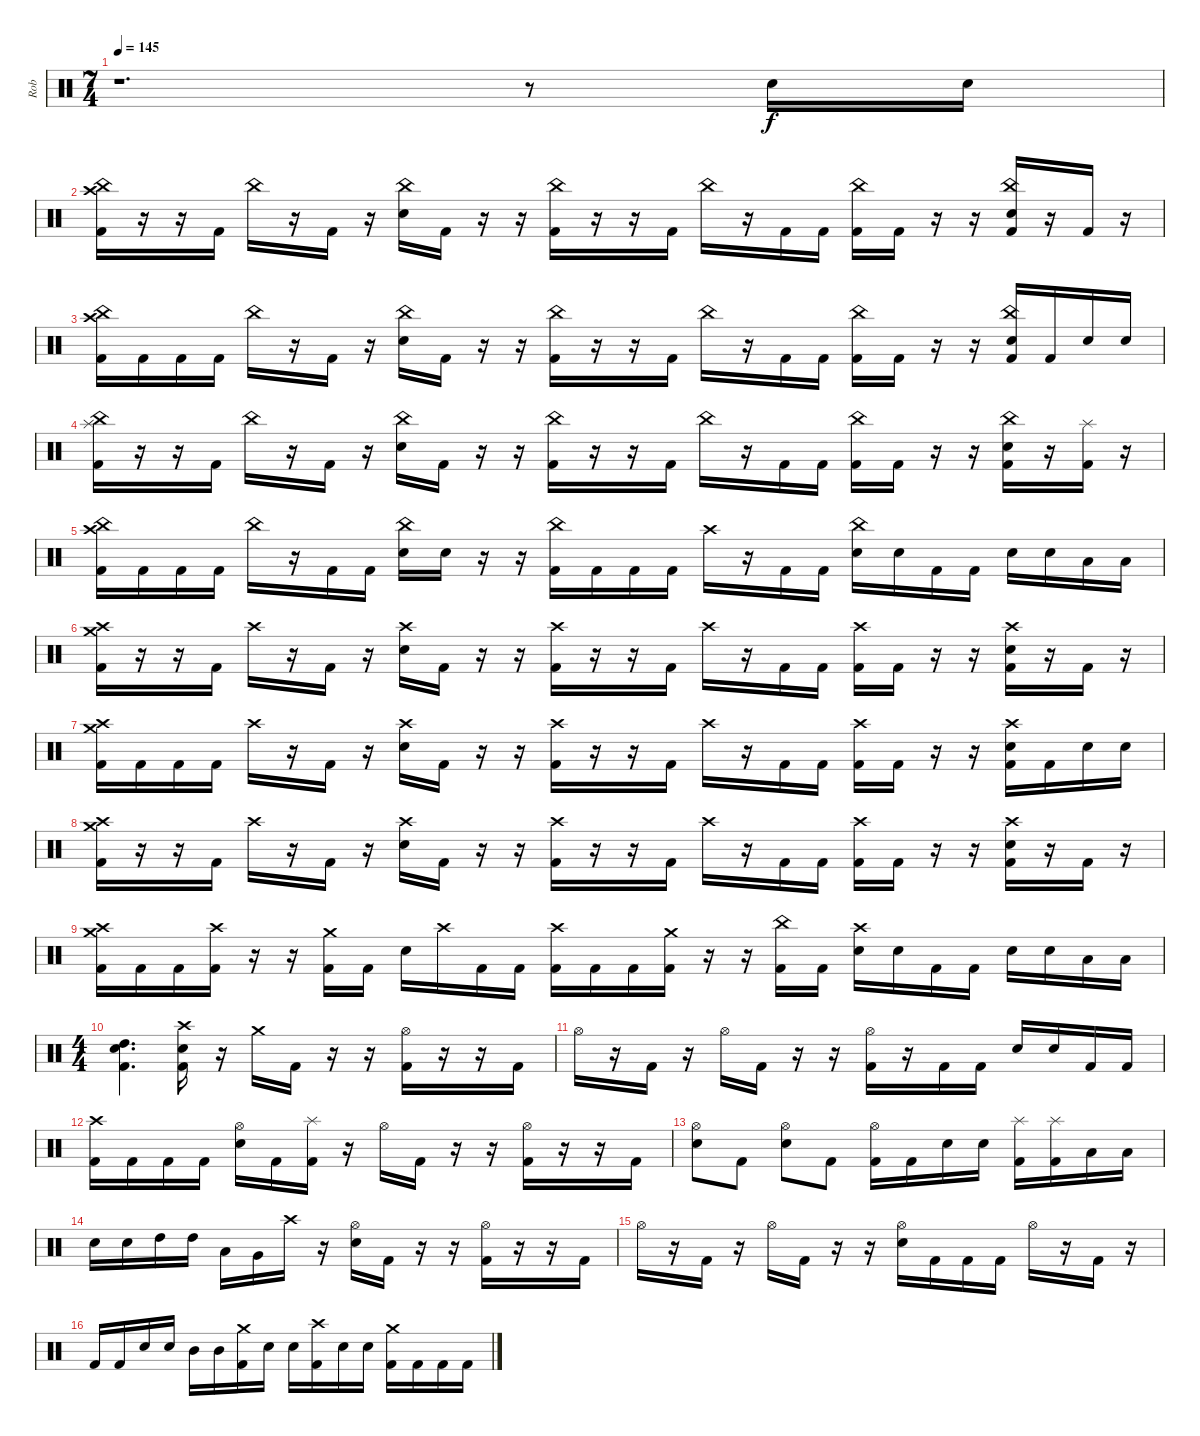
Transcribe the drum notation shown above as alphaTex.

\track ("Rob" "Rob") {instrument percussion}
\staff {score}
\articulation defaults
\ts (7 4)
\tempo 145
\clef neutral
\ks c
r.1{d dy f} r.8 "Electric Snare (hit)".16 "Electric Snare (hit)".16 |
("China (hit)" "Kick (hit) 2" "Crash high (hit)").16 r.16 r.16 "Kick (hit) 2".16 "China (hit)".16 r.16 "Kick (hit) 2".16 r.16 ("Electric Snare (hit)" "China (hit)").16 "Kick (hit) 2".16 r.16 r.16 ("Kick (hit) 2" "China (hit)").16 r.16 r.16 "Kick (hit) 2".16 "China (hit)".16 r.16 "Kick (hit) 2".16 "Kick (hit) 2".16 ("China (hit)" "Kick (hit) 2").16 "Kick (hit) 2".16 r.16 r.16 ("Kick (hit) 2" "China (hit)" "Electric Snare (hit)").16 r.16 "Kick (hit) 2".16 r.16 |
("Crash high (hit)" "Kick (hit) 2" "China (hit)").16 "Kick (hit) 2".16 "Kick (hit) 2".16 "Kick (hit) 2".16 "China (hit)".16 r.16 "Kick (hit) 2".16 r.16 ("Electric Snare (hit)" "China (hit)").16 "Kick (hit) 2".16 r.16 r.16 ("Kick (hit) 2" "China (hit)").16 r.16 r.16 "Kick (hit) 2".16 "China (hit)".16 r.16 "Kick (hit) 2".16 "Kick (hit) 2".16 ("China (hit)" "Kick (hit) 2").16 "Kick (hit) 2".16 r.16 r.16 ("Kick (hit) 2" "China (hit)" "Electric Snare (hit)").16 "Kick (hit) 2".16 "Electric Snare (hit)".16 "Electric Snare (hit)".16 |
("Splash (hit)" "China (hit)" "Kick (hit) 2").16 r.16 r.16 "Kick (hit) 2".16 "China (hit)".16 r.16 "Kick (hit) 2".16 r.16 ("Electric Snare (hit)" "China (hit)").16 "Kick (hit) 2".16 r.16 r.16 ("Kick (hit) 2" "China (hit)").16 r.16 r.16 "Kick (hit) 2".16 "China (hit)".16 r.16 "Kick (hit) 2".16 "Kick (hit) 2".16 ("China (hit)" "Kick (hit) 2").16 "Kick (hit) 2".16 r.16 r.16 ("Kick (hit) 2" "China (hit)" "Electric Snare (hit)").16 r.16 ("Kick (hit) 2" "Splash (hit)").16 r.16 |
("Crash high (hit)" "Kick (hit) 2" "China (hit)").16 "Kick (hit) 2".16 "Kick (hit) 2".16 "Kick (hit) 2".16 "China (hit)".16 r.16 "Kick (hit) 2".16 "Kick (hit) 2".16 ("Electric Snare (hit)" "China (hit)").16 "Electric Snare (hit)".16 r.16 r.16 ("Kick (hit) 2" "China (hit)").16 "Kick (hit) 2".16 "Kick (hit) 2".16 "Kick (hit) 2".16 "Crash high (hit)".16 r.16 "Kick (hit) 2".16 "Kick (hit) 2".16 ("China (hit)" "Electric Snare (hit)").16 "Electric Snare (hit)".16 "Kick (hit) 2".16 "Kick (hit) 2".16 "Electric Snare (hit)".16 "Electric Snare (hit)".16 "Low Tom (hit)".16 "Low Tom (hit)".16 |
("Crash high (hit)" "Kick (hit) 2" "Crash medium (hit)").16 r.16 r.16 "Kick (hit) 2".16 "Crash high (hit)".16 r.16 "Kick (hit) 2".16 r.16 ("Electric Snare (hit)" "Crash high (hit)").16 "Kick (hit) 2".16 r.16 r.16 ("Kick (hit) 2" "Crash high (hit)").16 r.16 r.16 "Kick (hit) 2".16 "Crash high (hit)".16 r.16 "Kick (hit) 2".16 "Kick (hit) 2".16 ("Crash high (hit)" "Kick (hit) 2").16 "Kick (hit) 2".16 r.16 r.16 ("Kick (hit) 2" "Crash high (hit)" "Electric Snare (hit)").16 r.16 "Kick (hit) 2".16 r.16 |
("Crash high (hit)" "Kick (hit) 2" "Crash medium (hit)").16 "Kick (hit) 2".16 "Kick (hit) 2".16 "Kick (hit) 2".16 "Crash high (hit)".16 r.16 "Kick (hit) 2".16 r.16 ("Electric Snare (hit)" "Crash high (hit)").16 "Kick (hit) 2".16 r.16 r.16 ("Kick (hit) 2" "Crash high (hit)").16 r.16 r.16 "Kick (hit) 2".16 "Crash high (hit)".16 r.16 "Kick (hit) 2".16 "Kick (hit) 2".16 ("Crash high (hit)" "Kick (hit) 2").16 "Kick (hit) 2".16 r.16 r.16 ("Kick (hit) 2" "Crash high (hit)" "Electric Snare (hit)").16 "Kick (hit) 2".16 "Electric Snare (hit)".16 "Electric Snare (hit)".16 |
("Crash high (hit)" "Kick (hit) 2" "Crash medium (hit)").16 r.16 r.16 "Kick (hit) 2".16 "Crash high (hit)".16 r.16 "Kick (hit) 2".16 r.16 ("Electric Snare (hit)" "Crash high (hit)").16 "Kick (hit) 2".16 r.16 r.16 ("Kick (hit) 2" "Crash high (hit)").16 r.16 r.16 "Kick (hit) 2".16 "Crash high (hit)".16 r.16 "Kick (hit) 2".16 "Kick (hit) 2".16 ("Crash high (hit)" "Kick (hit) 2").16 "Kick (hit) 2".16 r.16 r.16 ("Kick (hit) 2" "Crash high (hit)" "Electric Snare (hit)").16 r.16 "Kick (hit) 2".16 r.16 |
("Crash high (hit)" "Kick (hit) 2" "Crash medium (hit)").16 "Kick (hit) 2".16 "Kick (hit) 2".16 ("Kick (hit) 2" "Crash high (hit)").16 r.16 r.16 ("Kick (hit) 2" "Crash medium (hit)").16 "Kick (hit) 2".16 "Electric Snare (hit)".16 "Crash high (hit)".16 "Kick (hit) 2".16 "Kick (hit) 2".16 ("Kick (hit) 2" "Crash high (hit)").16 "Kick (hit) 2".16 "Kick (hit) 2".16 ("Crash medium (hit)" "Kick (hit) 2").16 r.16 r.16 ("Kick (hit) 2" "China (hit)").16 "Kick (hit) 2".16 ("Crash high (hit)" "Electric Snare (hit)").16 "Electric Snare (hit)".16 "Kick (hit) 2".16 "Kick (hit) 2".16 "Electric Snare (hit)".16 "Electric Snare (hit)".16 "Low Tom (hit)".16 "Low Tom (hit)".16 |
\ts (4 4)
("Electric Snare (hit)" "Kick (hit) 2" "High Tom (hit)").4{d} ("Crash high (hit)" "Kick (hit) 2" "Electric Snare (hit)").16 r.16 "Crash medium (hit)".16 "Kick (hit) 2".16 r.16 r.16 ("Kick (hit) 2" "Hi-Hat (open)").16 r.16 r.16 "Kick (hit) 2".16 |
"Hi-Hat (open)".16 r.16 "Kick (hit) 2".16 r.16 "Hi-Hat (open)".16 "Kick (hit) 2".16 r.16 r.16 ("Hi-Hat (open)" "Kick (hit) 2").16 r.16 "Kick (hit) 2".16 "Kick (hit) 2".16 "Electric Snare (hit)".16 "Electric Snare (hit)".16 "Kick (hit) 2".16 "Kick (hit) 2".16 |
("Kick (hit) 2" "Crash high (hit)").16 "Kick (hit) 2".16 "Kick (hit) 2".16 "Kick (hit) 2".16 ("Electric Snare (hit)" "Hi-Hat (open)").16 "Kick (hit) 2".16 ("Kick (hit) 2" "Splash (hit)").16 r.16 "Hi-Hat (open)".16 "Kick (hit) 2".16 r.16 r.16 ("Kick (hit) 2" "Hi-Hat (open)").16 r.16 r.16 "Kick (hit) 2".16 |
("Electric Snare (hit)" "Hi-Hat (open)").8 "Kick (hit) 2".8 ("Electric Snare (hit)" "Hi-Hat (open)").8 "Kick (hit) 2".8 ("Kick (hit) 2" "Hi-Hat (open)").16 "Kick (hit) 2".16 "Electric Snare (hit)".16 "Electric Snare (hit)".16 ("Kick (hit) 2" "Splash (hit)").16 ("Kick (hit) 2" "Splash (hit)").16 "Low Tom (hit)".16 "Low Tom (hit)".16 |
"Electric Snare (hit)".16 "Electric Snare (hit)".16 "High Tom (hit)".16 "High Tom (hit)".16 "Low Tom (hit)".16 "Very Low Tom (hit)".16 "Crash high (hit)".16 r.16 ("Hi-Hat (open)" "Electric Snare (hit)").16 "Kick (hit) 2".16 r.16 r.16 ("Kick (hit) 2" "Hi-Hat (open)").16 r.16 r.16 "Kick (hit) 2".16 |
"Hi-Hat (open)".16 r.16 "Kick (hit) 2".16 r.16 "Hi-Hat (open)".16 "Kick (hit) 2".16 r.16 r.16 ("Hi-Hat (open)" "Electric Snare (hit)").16 "Kick (hit) 2".16 "Kick (hit) 2".16 "Kick (hit) 2".16 "Hi-Hat (open)".16 r.16 "Kick (hit) 2".16 r.16 |
"Kick (hit) 2".16 "Kick (hit) 2".16 "Electric Snare (hit)".16 "Electric Snare (hit)".16 "Mid Tom (hit)".16 "Mid Tom (hit)".16 ("Crash medium (hit)" "Kick (hit) 2").16 "Electric Snare (hit)".16 "Electric Snare (hit)".16 ("Crash high (hit)" "Kick (hit) 2").16 "Electric Snare (hit)".16 "Electric Snare (hit)".16 ("Crash medium (hit)" "Kick (hit) 2").16 "Kick (hit) 2".16 "Kick (hit) 2".16 "Kick (hit) 2".16
